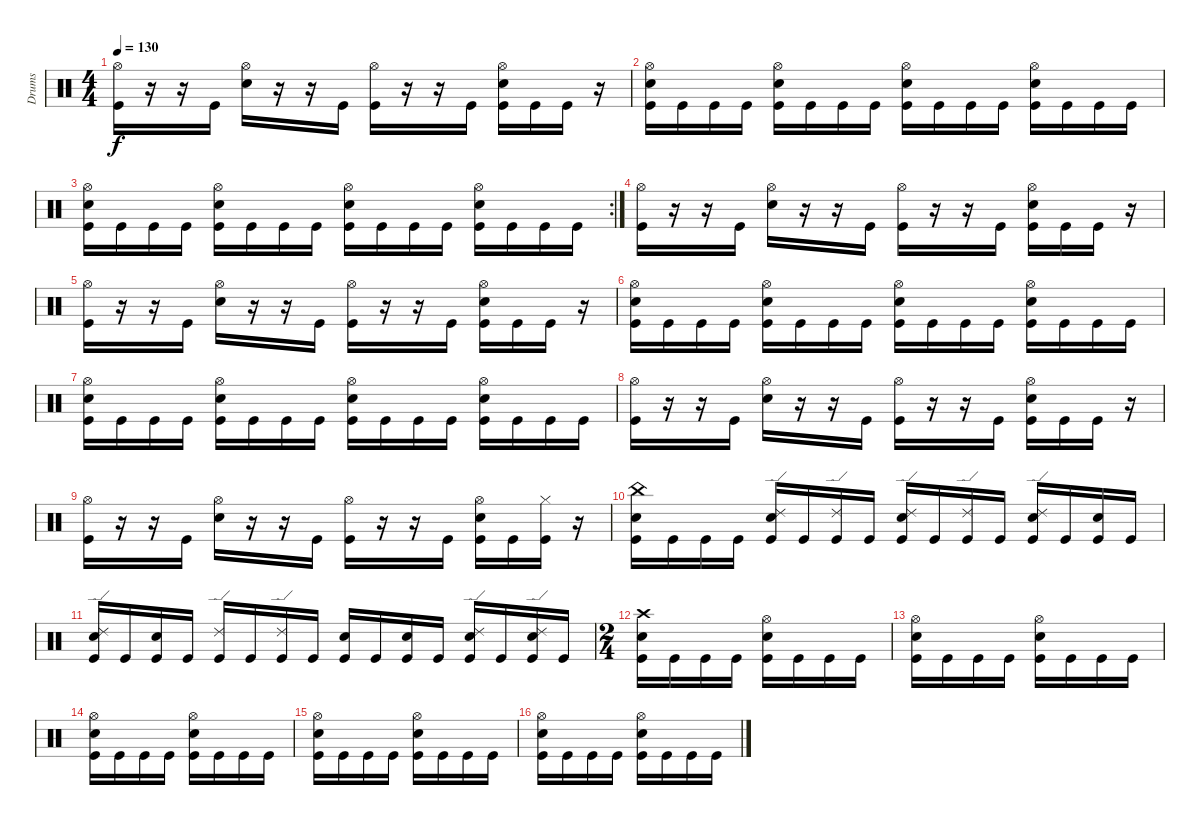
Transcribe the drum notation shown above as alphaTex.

\track ("Drums" "Drums") {instrument percussion}
\staff {score}
\articulation defaults
\ts (4 4)
\tempo 130
\clef neutral
\ks c
("Hi-Hat (open)" "Kick (hit)").16{dy f} r.16 r.16 "Kick (hit)".16 ("Hi-Hat (open)" "Electric Snare (hit)").16 r.16 r.16 "Kick (hit)".16 ("Hi-Hat (open)" "Kick (hit)").16 r.16 r.16 "Kick (hit)".16 ("Hi-Hat (open)" "Electric Snare (hit)" "Kick (hit)").16 "Kick (hit)".16 "Kick (hit)".16 r.16 |
("Hi-Hat (open)" "Electric Snare (hit)" "Kick (hit)").16 "Kick (hit)".16 "Kick (hit)".16 "Kick (hit)".16 ("Hi-Hat (open)" "Electric Snare (hit)" "Kick (hit)").16 "Kick (hit)".16 "Kick (hit)".16 "Kick (hit)".16 ("Hi-Hat (open)" "Electric Snare (hit)" "Kick (hit)").16 "Kick (hit)".16 "Kick (hit)".16 "Kick (hit)".16 ("Hi-Hat (open)" "Electric Snare (hit)" "Kick (hit)").16 "Kick (hit)".16 "Kick (hit)".16 "Kick (hit)".16 |
\rc 2
("Hi-Hat (open)" "Electric Snare (hit)" "Kick (hit)").16 "Kick (hit)".16 "Kick (hit)".16 "Kick (hit)".16 ("Hi-Hat (open)" "Electric Snare (hit)" "Kick (hit)").16 "Kick (hit)".16 "Kick (hit)".16 "Kick (hit)".16 ("Hi-Hat (open)" "Electric Snare (hit)" "Kick (hit)").16 "Kick (hit)".16 "Kick (hit)".16 "Kick (hit)".16 ("Hi-Hat (open)" "Electric Snare (hit)" "Kick (hit)").16 "Kick (hit)".16 "Kick (hit)".16 "Kick (hit)".16 |
("Hi-Hat (open)" "Kick (hit)").16 r.16 r.16 "Kick (hit)".16 ("Hi-Hat (open)" "Electric Snare (hit)").16 r.16 r.16 "Kick (hit)".16 ("Hi-Hat (open)" "Kick (hit)").16 r.16 r.16 "Kick (hit)".16 ("Hi-Hat (open)" "Electric Snare (hit)" "Kick (hit)").16 "Kick (hit)".16 "Kick (hit)".16 r.16 |
("Hi-Hat (open)" "Kick (hit)").16 r.16 r.16 "Kick (hit)".16 ("Hi-Hat (open)" "Electric Snare (hit)").16 r.16 r.16 "Kick (hit)".16 ("Hi-Hat (open)" "Kick (hit)").16 r.16 r.16 "Kick (hit)".16 ("Hi-Hat (open)" "Electric Snare (hit)" "Kick (hit)").16 "Kick (hit)".16 "Kick (hit)".16 r.16 |
("Hi-Hat (open)" "Electric Snare (hit)" "Kick (hit)").16 "Kick (hit)".16 "Kick (hit)".16 "Kick (hit)".16 ("Hi-Hat (open)" "Electric Snare (hit)" "Kick (hit)").16 "Kick (hit)".16 "Kick (hit)".16 "Kick (hit)".16 ("Hi-Hat (open)" "Electric Snare (hit)" "Kick (hit)").16 "Kick (hit)".16 "Kick (hit)".16 "Kick (hit)".16 ("Hi-Hat (open)" "Electric Snare (hit)" "Kick (hit)").16 "Kick (hit)".16 "Kick (hit)".16 "Kick (hit)".16 |
("Hi-Hat (open)" "Electric Snare (hit)" "Kick (hit)").16 "Kick (hit)".16 "Kick (hit)".16 "Kick (hit)".16 ("Hi-Hat (open)" "Electric Snare (hit)" "Kick (hit)").16 "Kick (hit)".16 "Kick (hit)".16 "Kick (hit)".16 ("Hi-Hat (open)" "Electric Snare (hit)" "Kick (hit)").16 "Kick (hit)".16 "Kick (hit)".16 "Kick (hit)".16 ("Hi-Hat (open)" "Electric Snare (hit)" "Kick (hit)").16 "Kick (hit)".16 "Kick (hit)".16 "Kick (hit)".16 |
("Hi-Hat (open)" "Kick (hit)").16 r.16 r.16 "Kick (hit)".16 ("Hi-Hat (open)" "Electric Snare (hit)").16 r.16 r.16 "Kick (hit)".16 ("Hi-Hat (open)" "Kick (hit)").16 r.16 r.16 "Kick (hit)".16 ("Hi-Hat (open)" "Electric Snare (hit)" "Kick (hit)").16 "Kick (hit)".16 "Kick (hit)".16 r.16 |
("Hi-Hat (open)" "Kick (hit)").16 r.16 r.16 "Kick (hit)".16 ("Hi-Hat (open)" "Electric Snare (hit)").16 r.16 r.16 "Kick (hit)".16 ("Hi-Hat (open)" "Kick (hit)").16 r.16 r.16 "Kick (hit)".16 ("Hi-Hat (open)" "Electric Snare (hit)" "Kick (hit)").16 "Kick (hit)".16 ("Hi-Hat (closed)" "Kick (hit)").16 r.16 |
("China (hit)" "Electric Snare (hit)" "Kick (hit)").16 "Kick (hit)".16 "Kick (hit)".16 "Kick (hit)".16 ("Ride (edge) 2" "Electric Snare (hit)" "Kick (hit)").16 "Kick (hit)".16 ("Ride (edge) 2" "Kick (hit)").16 "Kick (hit)".16 ("Ride (edge) 2" "Electric Snare (hit)" "Kick (hit)").16 "Kick (hit)".16 ("Ride (edge) 2" "Kick (hit)").16 "Kick (hit)".16 ("Ride (edge) 2" "Electric Snare (hit)" "Kick (hit)").16 "Kick (hit)".16 ("Electric Snare (hit)" "Kick (hit)").16 "Kick (hit)".16 |
("Ride (edge) 2" "Electric Snare (hit)" "Kick (hit)").16 "Kick (hit)".16 ("Electric Snare (hit)" "Kick (hit)").16 "Kick (hit)".16 ("Ride (edge) 2" "Kick (hit)").16 "Kick (hit)".16 ("Ride (edge) 2" "Kick (hit)").16 "Kick (hit)".16 ("Electric Snare (hit)" "Kick (hit)").16 "Kick (hit)".16 ("Electric Snare (hit)" "Kick (hit)").16 "Kick (hit)".16 ("Ride (edge) 2" "Electric Snare (hit)" "Kick (hit)").16 "Kick (hit)".16 ("Ride (edge) 2" "Electric Snare (hit)" "Kick (hit)").16 "Kick (hit)".16 |
\ts (2 4)
("Crash high (hit)" "Electric Snare (hit)" "Kick (hit)").16 "Kick (hit)".16 "Kick (hit)".16 "Kick (hit)".16 ("Hi-Hat (open)" "Electric Snare (hit)" "Kick (hit)").16 "Kick (hit)".16 "Kick (hit)".16 "Kick (hit)".16 |
("Hi-Hat (open)" "Electric Snare (hit)" "Kick (hit)").16 "Kick (hit)".16 "Kick (hit)".16 "Kick (hit)".16 ("Hi-Hat (open)" "Electric Snare (hit)" "Kick (hit)").16 "Kick (hit)".16 "Kick (hit)".16 "Kick (hit)".16 |
("Hi-Hat (open)" "Electric Snare (hit)" "Kick (hit)").16 "Kick (hit)".16 "Kick (hit)".16 "Kick (hit)".16 ("Hi-Hat (open)" "Electric Snare (hit)" "Kick (hit)").16 "Kick (hit)".16 "Kick (hit)".16 "Kick (hit)".16 |
("Hi-Hat (open)" "Electric Snare (hit)" "Kick (hit)").16 "Kick (hit)".16 "Kick (hit)".16 "Kick (hit)".16 ("Hi-Hat (open)" "Electric Snare (hit)" "Kick (hit)").16 "Kick (hit)".16 "Kick (hit)".16 "Kick (hit)".16 |
("Hi-Hat (open)" "Electric Snare (hit)" "Kick (hit)").16 "Kick (hit)".16 "Kick (hit)".16 "Kick (hit)".16 ("Hi-Hat (open)" "Electric Snare (hit)" "Kick (hit)").16 "Kick (hit)".16 "Kick (hit)".16 "Kick (hit)".16
